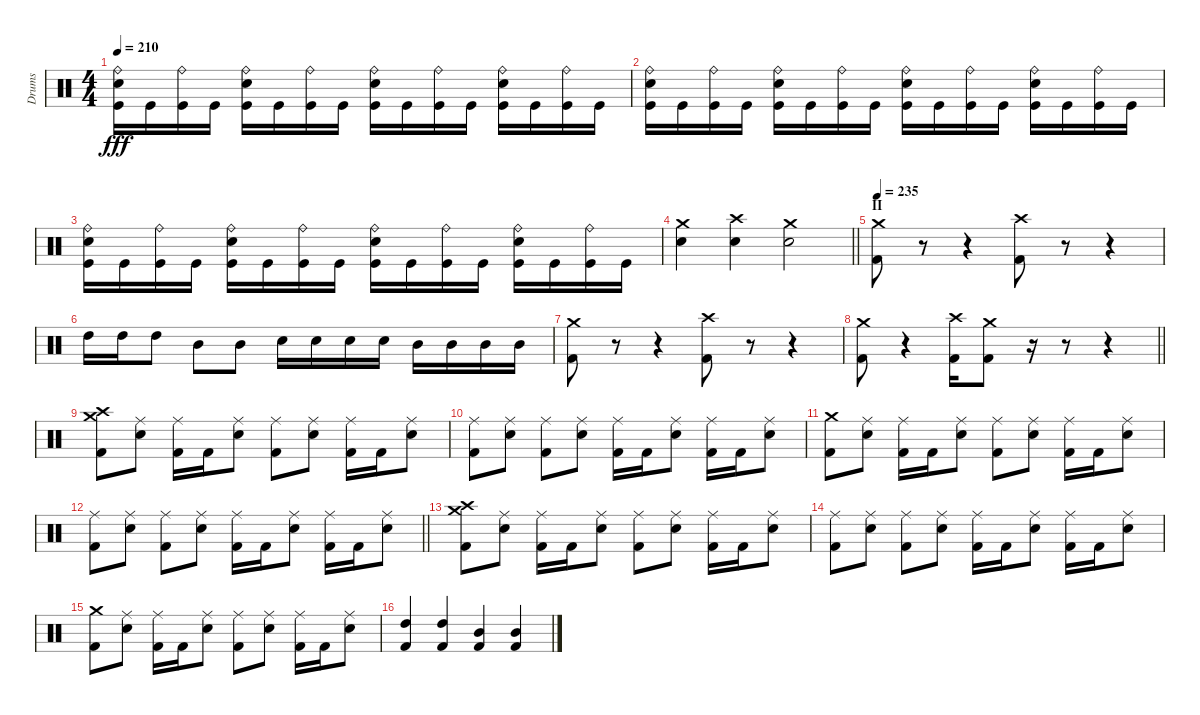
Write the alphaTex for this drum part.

\track ("Drums" "Drums") {instrument percussion}
\staff {score}
\articulation defaults
\ts (4 4)
\tempo 210
\clef neutral
\ks c
("Kick (hit)" "Electric Snare (hit)" "Ride (bell)").16{dy fff} "Kick (hit)".16 ("Kick (hit)" "Ride (bell)").16 "Kick (hit)".16 ("Kick (hit)" "Electric Snare (hit)" "Ride (bell)").16 "Kick (hit)".16 ("Kick (hit)" "Ride (bell)").16 "Kick (hit)".16 ("Kick (hit)" "Electric Snare (hit)" "Ride (bell)").16 "Kick (hit)".16 ("Kick (hit)" "Ride (bell)").16 "Kick (hit)".16 ("Kick (hit)" "Electric Snare (hit)" "Ride (bell)").16 "Kick (hit)".16 ("Kick (hit)" "Ride (bell)").16 "Kick (hit)".16 |
("Kick (hit)" "Electric Snare (hit)" "Ride (bell)").16 "Kick (hit)".16 ("Kick (hit)" "Ride (bell)").16 "Kick (hit)".16 ("Kick (hit)" "Electric Snare (hit)" "Ride (bell)").16 "Kick (hit)".16 ("Kick (hit)" "Ride (bell)").16 "Kick (hit)".16 ("Kick (hit)" "Electric Snare (hit)" "Ride (bell)").16 "Kick (hit)".16 ("Kick (hit)" "Ride (bell)").16 "Kick (hit)".16 ("Kick (hit)" "Electric Snare (hit)" "Ride (bell)").16 "Kick (hit)".16 ("Kick (hit)" "Ride (bell)").16 "Kick (hit)".16 |
("Kick (hit)" "Electric Snare (hit)" "Ride (bell)").16 "Kick (hit)".16 ("Kick (hit)" "Ride (bell)").16 "Kick (hit)".16 ("Kick (hit)" "Electric Snare (hit)" "Ride (bell)").16 "Kick (hit)".16 ("Kick (hit)" "Ride (bell)").16 "Kick (hit)".16 ("Kick (hit)" "Electric Snare (hit)" "Ride (bell)").16 "Kick (hit)".16 ("Kick (hit)" "Ride (bell)").16 "Kick (hit)".16 ("Kick (hit)" "Electric Snare (hit)" "Ride (bell)").16 "Kick (hit)".16 ("Kick (hit)" "Ride (bell)").16 "Kick (hit)".16 |
\barLineRight lightlight
("Crash medium (hit)" "Electric Snare (hit)").4 ("Crash high (hit)" "Electric Snare (hit)").4 ("Crash medium (hit)" "Electric Snare (hit)").2 |
\section ("" "II")
\tempo 235
("Crash medium (hit)" "Kick (hit) 2").8 r.8 r.4 ("Crash high (hit)" "Kick (hit) 2").8 r.8 r.4 |
"High Tom (hit)".16 "High Tom (hit)".16 "High Tom (hit)".8 "Mid Tom (hit)".8 "Mid Tom (hit)".8 "Electric Snare (hit)".16 "Electric Snare (hit)".16 "Electric Snare (hit)".16 "Electric Snare (hit)".16 "Mid Tom (hit)".16 "Mid Tom (hit)".16 "Mid Tom (hit)".16 "Mid Tom (hit)".16 |
("Crash medium (hit)" "Kick (hit) 2").8 r.8 r.4 ("Crash high (hit)" "Kick (hit) 2").8 r.8 r.4 |
\barLineRight lightlight
("Crash medium (hit)" "Kick (hit) 2").8 r.4 ("Crash high (hit)" "Kick (hit) 2").16 ("Crash medium (hit)" "Kick (hit) 2").8 r.16 r.8 r.4 |
("Crash high (hit)" "Crash medium (hit)" "Kick (hit) 2").8 ("Ride (middle)" "Electric Snare (hit)").8 ("Ride (middle)" "Kick (hit) 2").16 "Kick (hit) 2".16 ("Ride (middle)" "Electric Snare (hit)").8 ("Ride (middle)" "Kick (hit) 2").8 ("Ride (middle)" "Electric Snare (hit)").8 ("Ride (middle)" "Kick (hit) 2").16 "Kick (hit) 2".16 ("Ride (middle)" "Electric Snare (hit)").8 |
("Ride (middle)" "Kick (hit) 2").8 ("Ride (middle)" "Electric Snare (hit)").8 ("Ride (middle)" "Kick (hit) 2").8 ("Ride (middle)" "Electric Snare (hit)").8 ("Ride (middle)" "Kick (hit) 2").16 "Kick (hit) 2".16 ("Ride (middle)" "Electric Snare (hit)").8 ("Ride (middle)" "Kick (hit) 2").16 "Kick (hit) 2".16 ("Ride (middle)" "Electric Snare (hit)").8 |
("Crash medium (hit)" "Kick (hit) 2").8 ("Ride (middle)" "Electric Snare (hit)").8 ("Ride (middle)" "Kick (hit) 2").16 "Kick (hit) 2".16 ("Ride (middle)" "Electric Snare (hit)").8 ("Ride (middle)" "Kick (hit) 2").8 ("Ride (middle)" "Electric Snare (hit)").8 ("Ride (middle)" "Kick (hit) 2").16 "Kick (hit) 2".16 ("Ride (middle)" "Electric Snare (hit)").8 |
\barLineRight lightlight
("Ride (middle)" "Kick (hit) 2").8 ("Ride (middle)" "Electric Snare (hit)").8 ("Ride (middle)" "Kick (hit) 2").8 ("Ride (middle)" "Electric Snare (hit)").8 ("Ride (middle)" "Kick (hit) 2").16 "Kick (hit) 2".16 ("Ride (middle)" "Electric Snare (hit)").8 ("Ride (middle)" "Kick (hit) 2").16 "Kick (hit) 2".16 ("Ride (middle)" "Electric Snare (hit)").8 |
("Crash high (hit)" "Crash medium (hit)" "Kick (hit) 2").8 ("Ride (middle)" "Electric Snare (hit)").8 ("Ride (middle)" "Kick (hit) 2").16 "Kick (hit) 2".16 ("Ride (middle)" "Electric Snare (hit)").8 ("Ride (middle)" "Kick (hit) 2").8 ("Ride (middle)" "Electric Snare (hit)").8 ("Ride (middle)" "Kick (hit) 2").16 "Kick (hit) 2".16 ("Ride (middle)" "Electric Snare (hit)").8 |
("Ride (middle)" "Kick (hit) 2").8 ("Ride (middle)" "Electric Snare (hit)").8 ("Ride (middle)" "Kick (hit) 2").8 ("Ride (middle)" "Electric Snare (hit)").8 ("Ride (middle)" "Kick (hit) 2").16 "Kick (hit) 2".16 ("Ride (middle)" "Electric Snare (hit)").8 ("Ride (middle)" "Kick (hit) 2").16 "Kick (hit) 2".16 ("Ride (middle)" "Electric Snare (hit)").8 |
("Crash medium (hit)" "Kick (hit) 2").8 ("Ride (middle)" "Electric Snare (hit)").8 ("Ride (middle)" "Kick (hit) 2").16 "Kick (hit) 2".16 ("Ride (middle)" "Electric Snare (hit)").8 ("Ride (middle)" "Kick (hit) 2").8 ("Ride (middle)" "Electric Snare (hit)").8 ("Ride (middle)" "Kick (hit) 2").16 "Kick (hit) 2".16 ("Ride (middle)" "Electric Snare (hit)").8 |
("High Tom (hit)" "Kick (hit) 2").4 ("High Tom (hit)" "Kick (hit) 2").4 ("Mid Tom (hit)" "Kick (hit) 2").4 ("Mid Tom (hit)" "Kick (hit) 2").4
